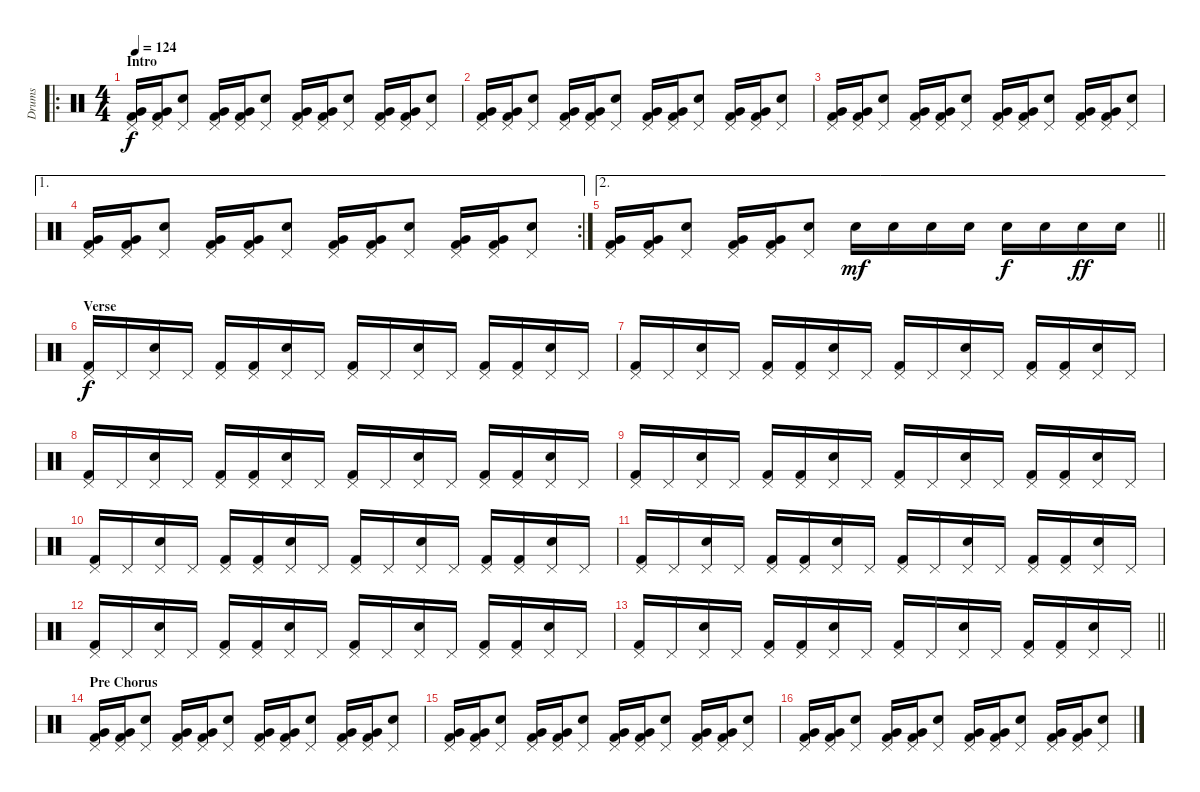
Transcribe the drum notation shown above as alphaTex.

\track ("Drums" "Drums") {instrument percussion}
\staff {score}
\articulation defaults
\ro
\ts (4 4)
\section ("" "Intro")
\tempo 124
\clef neutral
\ks c
("Pedal Hi-Hat (hit)" "Very Low Tom (hit)" "Kick (hit) 2").16{dy f} ("Pedal Hi-Hat (hit)" "Very Low Tom (hit)" "Kick (hit) 2").16 ("Pedal Hi-Hat (hit)" "Electric Snare (hit)").8 ("Pedal Hi-Hat (hit)" "Very Low Tom (hit)" "Kick (hit) 2").16 ("Pedal Hi-Hat (hit)" "Very Low Tom (hit)" "Kick (hit) 2").16 ("Pedal Hi-Hat (hit)" "Electric Snare (hit)").8 ("Pedal Hi-Hat (hit)" "Very Low Tom (hit)" "Kick (hit) 2").16 ("Pedal Hi-Hat (hit)" "Very Low Tom (hit)" "Kick (hit) 2").16 ("Pedal Hi-Hat (hit)" "Electric Snare (hit)").8 ("Pedal Hi-Hat (hit)" "Very Low Tom (hit)" "Kick (hit) 2").16 ("Pedal Hi-Hat (hit)" "Very Low Tom (hit)" "Kick (hit) 2").16 ("Pedal Hi-Hat (hit)" "Electric Snare (hit)").8 |
("Pedal Hi-Hat (hit)" "Very Low Tom (hit)" "Kick (hit) 2").16 ("Pedal Hi-Hat (hit)" "Very Low Tom (hit)" "Kick (hit) 2").16 ("Pedal Hi-Hat (hit)" "Electric Snare (hit)").8 ("Pedal Hi-Hat (hit)" "Very Low Tom (hit)" "Kick (hit) 2").16 ("Pedal Hi-Hat (hit)" "Very Low Tom (hit)" "Kick (hit) 2").16 ("Pedal Hi-Hat (hit)" "Electric Snare (hit)").8 ("Pedal Hi-Hat (hit)" "Very Low Tom (hit)" "Kick (hit) 2").16 ("Pedal Hi-Hat (hit)" "Very Low Tom (hit)" "Kick (hit) 2").16 ("Pedal Hi-Hat (hit)" "Electric Snare (hit)").8 ("Pedal Hi-Hat (hit)" "Very Low Tom (hit)" "Kick (hit) 2").16 ("Pedal Hi-Hat (hit)" "Very Low Tom (hit)" "Kick (hit) 2").16 ("Pedal Hi-Hat (hit)" "Electric Snare (hit)").8 |
("Pedal Hi-Hat (hit)" "Very Low Tom (hit)" "Kick (hit) 2").16 ("Pedal Hi-Hat (hit)" "Very Low Tom (hit)" "Kick (hit) 2").16 ("Pedal Hi-Hat (hit)" "Electric Snare (hit)").8 ("Pedal Hi-Hat (hit)" "Very Low Tom (hit)" "Kick (hit) 2").16 ("Pedal Hi-Hat (hit)" "Very Low Tom (hit)" "Kick (hit) 2").16 ("Pedal Hi-Hat (hit)" "Electric Snare (hit)").8 ("Pedal Hi-Hat (hit)" "Very Low Tom (hit)" "Kick (hit) 2").16 ("Pedal Hi-Hat (hit)" "Very Low Tom (hit)" "Kick (hit) 2").16 ("Pedal Hi-Hat (hit)" "Electric Snare (hit)").8 ("Pedal Hi-Hat (hit)" "Very Low Tom (hit)" "Kick (hit) 2").16 ("Pedal Hi-Hat (hit)" "Very Low Tom (hit)" "Kick (hit) 2").16 ("Pedal Hi-Hat (hit)" "Electric Snare (hit)").8 |
\ae 1
\rc 2
("Pedal Hi-Hat (hit)" "Very Low Tom (hit)" "Kick (hit) 2").16 ("Pedal Hi-Hat (hit)" "Very Low Tom (hit)" "Kick (hit) 2").16 ("Pedal Hi-Hat (hit)" "Electric Snare (hit)").8 ("Pedal Hi-Hat (hit)" "Very Low Tom (hit)" "Kick (hit) 2").16 ("Pedal Hi-Hat (hit)" "Very Low Tom (hit)" "Kick (hit) 2").16 ("Pedal Hi-Hat (hit)" "Electric Snare (hit)").8 ("Pedal Hi-Hat (hit)" "Very Low Tom (hit)" "Kick (hit) 2").16 ("Pedal Hi-Hat (hit)" "Very Low Tom (hit)" "Kick (hit) 2").16 ("Pedal Hi-Hat (hit)" "Electric Snare (hit)").8 ("Pedal Hi-Hat (hit)" "Very Low Tom (hit)" "Kick (hit) 2").16 ("Pedal Hi-Hat (hit)" "Very Low Tom (hit)" "Kick (hit) 2").16 ("Pedal Hi-Hat (hit)" "Electric Snare (hit)").8 |
\ae 2
\barLineRight lightlight
("Pedal Hi-Hat (hit)" "Very Low Tom (hit)" "Kick (hit) 2").16 ("Pedal Hi-Hat (hit)" "Very Low Tom (hit)" "Kick (hit) 2").16 ("Pedal Hi-Hat (hit)" "Electric Snare (hit)").8 ("Pedal Hi-Hat (hit)" "Very Low Tom (hit)" "Kick (hit) 2").16 ("Pedal Hi-Hat (hit)" "Very Low Tom (hit)" "Kick (hit) 2").16 ("Pedal Hi-Hat (hit)" "Electric Snare (hit)").8 "Electric Snare (hit)".16{dy mf} "Electric Snare (hit)".16 "Electric Snare (hit)".16 "Electric Snare (hit)".16 "Electric Snare (hit)".16{dy f} "Electric Snare (hit)".16 "Electric Snare (hit)".16{dy ff} "Electric Snare (hit)".16 |
\section ("" "Verse")
("Pedal Hi-Hat (hit)" "Kick (hit) 2").16{dy f} "Pedal Hi-Hat (hit)".16 ("Pedal Hi-Hat (hit)" "Electric Snare (hit)").16 "Pedal Hi-Hat (hit)".16 ("Pedal Hi-Hat (hit)" "Kick (hit) 2").16 ("Pedal Hi-Hat (hit)" "Kick (hit) 2").16 ("Pedal Hi-Hat (hit)" "Electric Snare (hit)").16 "Pedal Hi-Hat (hit)".16 ("Pedal Hi-Hat (hit)" "Kick (hit) 2").16 "Pedal Hi-Hat (hit)".16 ("Pedal Hi-Hat (hit)" "Electric Snare (hit)").16 "Pedal Hi-Hat (hit)".16 ("Pedal Hi-Hat (hit)" "Kick (hit) 2").16 ("Pedal Hi-Hat (hit)" "Kick (hit) 2").16 ("Pedal Hi-Hat (hit)" "Electric Snare (hit)").16 "Pedal Hi-Hat (hit)".16 |
("Pedal Hi-Hat (hit)" "Kick (hit) 2").16 "Pedal Hi-Hat (hit)".16 ("Pedal Hi-Hat (hit)" "Electric Snare (hit)").16 "Pedal Hi-Hat (hit)".16 ("Pedal Hi-Hat (hit)" "Kick (hit) 2").16 ("Pedal Hi-Hat (hit)" "Kick (hit) 2").16 ("Pedal Hi-Hat (hit)" "Electric Snare (hit)").16 "Pedal Hi-Hat (hit)".16 ("Pedal Hi-Hat (hit)" "Kick (hit) 2").16 "Pedal Hi-Hat (hit)".16 ("Pedal Hi-Hat (hit)" "Electric Snare (hit)").16 "Pedal Hi-Hat (hit)".16 ("Pedal Hi-Hat (hit)" "Kick (hit) 2").16 ("Pedal Hi-Hat (hit)" "Kick (hit) 2").16 ("Pedal Hi-Hat (hit)" "Electric Snare (hit)").16 "Pedal Hi-Hat (hit)".16 |
("Pedal Hi-Hat (hit)" "Kick (hit) 2").16 "Pedal Hi-Hat (hit)".16 ("Pedal Hi-Hat (hit)" "Electric Snare (hit)").16 "Pedal Hi-Hat (hit)".16 ("Pedal Hi-Hat (hit)" "Kick (hit) 2").16 ("Pedal Hi-Hat (hit)" "Kick (hit) 2").16 ("Pedal Hi-Hat (hit)" "Electric Snare (hit)").16 "Pedal Hi-Hat (hit)".16 ("Pedal Hi-Hat (hit)" "Kick (hit) 2").16 "Pedal Hi-Hat (hit)".16 ("Pedal Hi-Hat (hit)" "Electric Snare (hit)").16 "Pedal Hi-Hat (hit)".16 ("Pedal Hi-Hat (hit)" "Kick (hit) 2").16 ("Pedal Hi-Hat (hit)" "Kick (hit) 2").16 ("Pedal Hi-Hat (hit)" "Electric Snare (hit)").16 "Pedal Hi-Hat (hit)".16 |
("Pedal Hi-Hat (hit)" "Kick (hit) 2").16 "Pedal Hi-Hat (hit)".16 ("Pedal Hi-Hat (hit)" "Electric Snare (hit)").16 "Pedal Hi-Hat (hit)".16 ("Pedal Hi-Hat (hit)" "Kick (hit) 2").16 ("Pedal Hi-Hat (hit)" "Kick (hit) 2").16 ("Pedal Hi-Hat (hit)" "Electric Snare (hit)").16 "Pedal Hi-Hat (hit)".16 ("Pedal Hi-Hat (hit)" "Kick (hit) 2").16 "Pedal Hi-Hat (hit)".16 ("Pedal Hi-Hat (hit)" "Electric Snare (hit)").16 "Pedal Hi-Hat (hit)".16 ("Pedal Hi-Hat (hit)" "Kick (hit) 2").16 ("Pedal Hi-Hat (hit)" "Kick (hit) 2").16 ("Pedal Hi-Hat (hit)" "Electric Snare (hit)").16 "Pedal Hi-Hat (hit)".16 |
("Pedal Hi-Hat (hit)" "Kick (hit) 2").16 "Pedal Hi-Hat (hit)".16 ("Pedal Hi-Hat (hit)" "Electric Snare (hit)").16 "Pedal Hi-Hat (hit)".16 ("Pedal Hi-Hat (hit)" "Kick (hit) 2").16 ("Pedal Hi-Hat (hit)" "Kick (hit) 2").16 ("Pedal Hi-Hat (hit)" "Electric Snare (hit)").16 "Pedal Hi-Hat (hit)".16 ("Pedal Hi-Hat (hit)" "Kick (hit) 2").16 "Pedal Hi-Hat (hit)".16 ("Pedal Hi-Hat (hit)" "Electric Snare (hit)").16 "Pedal Hi-Hat (hit)".16 ("Pedal Hi-Hat (hit)" "Kick (hit) 2").16 ("Pedal Hi-Hat (hit)" "Kick (hit) 2").16 ("Pedal Hi-Hat (hit)" "Electric Snare (hit)").16 "Pedal Hi-Hat (hit)".16 |
("Pedal Hi-Hat (hit)" "Kick (hit) 2").16 "Pedal Hi-Hat (hit)".16 ("Pedal Hi-Hat (hit)" "Electric Snare (hit)").16 "Pedal Hi-Hat (hit)".16 ("Pedal Hi-Hat (hit)" "Kick (hit) 2").16 ("Pedal Hi-Hat (hit)" "Kick (hit) 2").16 ("Pedal Hi-Hat (hit)" "Electric Snare (hit)").16 "Pedal Hi-Hat (hit)".16 ("Pedal Hi-Hat (hit)" "Kick (hit) 2").16 "Pedal Hi-Hat (hit)".16 ("Pedal Hi-Hat (hit)" "Electric Snare (hit)").16 "Pedal Hi-Hat (hit)".16 ("Pedal Hi-Hat (hit)" "Kick (hit) 2").16 ("Pedal Hi-Hat (hit)" "Kick (hit) 2").16 ("Pedal Hi-Hat (hit)" "Electric Snare (hit)").16 "Pedal Hi-Hat (hit)".16 |
("Pedal Hi-Hat (hit)" "Kick (hit) 2").16 "Pedal Hi-Hat (hit)".16 ("Pedal Hi-Hat (hit)" "Electric Snare (hit)").16 "Pedal Hi-Hat (hit)".16 ("Pedal Hi-Hat (hit)" "Kick (hit) 2").16 ("Pedal Hi-Hat (hit)" "Kick (hit) 2").16 ("Pedal Hi-Hat (hit)" "Electric Snare (hit)").16 "Pedal Hi-Hat (hit)".16 ("Pedal Hi-Hat (hit)" "Kick (hit) 2").16 "Pedal Hi-Hat (hit)".16 ("Pedal Hi-Hat (hit)" "Electric Snare (hit)").16 "Pedal Hi-Hat (hit)".16 ("Pedal Hi-Hat (hit)" "Kick (hit) 2").16 ("Pedal Hi-Hat (hit)" "Kick (hit) 2").16 ("Pedal Hi-Hat (hit)" "Electric Snare (hit)").16 "Pedal Hi-Hat (hit)".16 |
\barLineRight lightlight
("Pedal Hi-Hat (hit)" "Kick (hit) 2").16 "Pedal Hi-Hat (hit)".16 ("Pedal Hi-Hat (hit)" "Electric Snare (hit)").16 "Pedal Hi-Hat (hit)".16 ("Pedal Hi-Hat (hit)" "Kick (hit) 2").16 ("Pedal Hi-Hat (hit)" "Kick (hit) 2").16 ("Pedal Hi-Hat (hit)" "Electric Snare (hit)").16 "Pedal Hi-Hat (hit)".16 ("Pedal Hi-Hat (hit)" "Kick (hit) 2").16 "Pedal Hi-Hat (hit)".16 ("Pedal Hi-Hat (hit)" "Electric Snare (hit)").16 "Pedal Hi-Hat (hit)".16 ("Pedal Hi-Hat (hit)" "Kick (hit) 2").16 ("Pedal Hi-Hat (hit)" "Kick (hit) 2").16 ("Pedal Hi-Hat (hit)" "Electric Snare (hit)").16 "Pedal Hi-Hat (hit)".16 |
\section ("" "Pre Chorus")
("Pedal Hi-Hat (hit)" "Very Low Tom (hit)" "Kick (hit) 2").16 ("Pedal Hi-Hat (hit)" "Very Low Tom (hit)" "Kick (hit) 2").16 ("Pedal Hi-Hat (hit)" "Electric Snare (hit)").8 ("Pedal Hi-Hat (hit)" "Very Low Tom (hit)" "Kick (hit) 2").16 ("Pedal Hi-Hat (hit)" "Very Low Tom (hit)" "Kick (hit) 2").16 ("Pedal Hi-Hat (hit)" "Electric Snare (hit)").8 ("Pedal Hi-Hat (hit)" "Very Low Tom (hit)" "Kick (hit) 2").16 ("Pedal Hi-Hat (hit)" "Very Low Tom (hit)" "Kick (hit) 2").16 ("Pedal Hi-Hat (hit)" "Electric Snare (hit)").8 ("Pedal Hi-Hat (hit)" "Very Low Tom (hit)" "Kick (hit) 2").16 ("Pedal Hi-Hat (hit)" "Very Low Tom (hit)" "Kick (hit) 2").16 ("Pedal Hi-Hat (hit)" "Electric Snare (hit)").8 |
("Pedal Hi-Hat (hit)" "Very Low Tom (hit)" "Kick (hit) 2").16 ("Pedal Hi-Hat (hit)" "Very Low Tom (hit)" "Kick (hit) 2").16 ("Pedal Hi-Hat (hit)" "Electric Snare (hit)").8 ("Pedal Hi-Hat (hit)" "Very Low Tom (hit)" "Kick (hit) 2").16 ("Pedal Hi-Hat (hit)" "Very Low Tom (hit)" "Kick (hit) 2").16 ("Pedal Hi-Hat (hit)" "Electric Snare (hit)").8 ("Pedal Hi-Hat (hit)" "Very Low Tom (hit)" "Kick (hit) 2").16 ("Pedal Hi-Hat (hit)" "Very Low Tom (hit)" "Kick (hit) 2").16 ("Pedal Hi-Hat (hit)" "Electric Snare (hit)").8 ("Pedal Hi-Hat (hit)" "Very Low Tom (hit)" "Kick (hit) 2").16 ("Pedal Hi-Hat (hit)" "Very Low Tom (hit)" "Kick (hit) 2").16 ("Pedal Hi-Hat (hit)" "Electric Snare (hit)").8 |
("Pedal Hi-Hat (hit)" "Very Low Tom (hit)" "Kick (hit) 2").16 ("Pedal Hi-Hat (hit)" "Very Low Tom (hit)" "Kick (hit) 2").16 ("Pedal Hi-Hat (hit)" "Electric Snare (hit)").8 ("Pedal Hi-Hat (hit)" "Very Low Tom (hit)" "Kick (hit) 2").16 ("Pedal Hi-Hat (hit)" "Very Low Tom (hit)" "Kick (hit) 2").16 ("Pedal Hi-Hat (hit)" "Electric Snare (hit)").8 ("Pedal Hi-Hat (hit)" "Very Low Tom (hit)" "Kick (hit) 2").16 ("Pedal Hi-Hat (hit)" "Very Low Tom (hit)" "Kick (hit) 2").16 ("Pedal Hi-Hat (hit)" "Electric Snare (hit)").8 ("Pedal Hi-Hat (hit)" "Very Low Tom (hit)" "Kick (hit) 2").16 ("Pedal Hi-Hat (hit)" "Very Low Tom (hit)" "Kick (hit) 2").16 ("Pedal Hi-Hat (hit)" "Electric Snare (hit)").8
